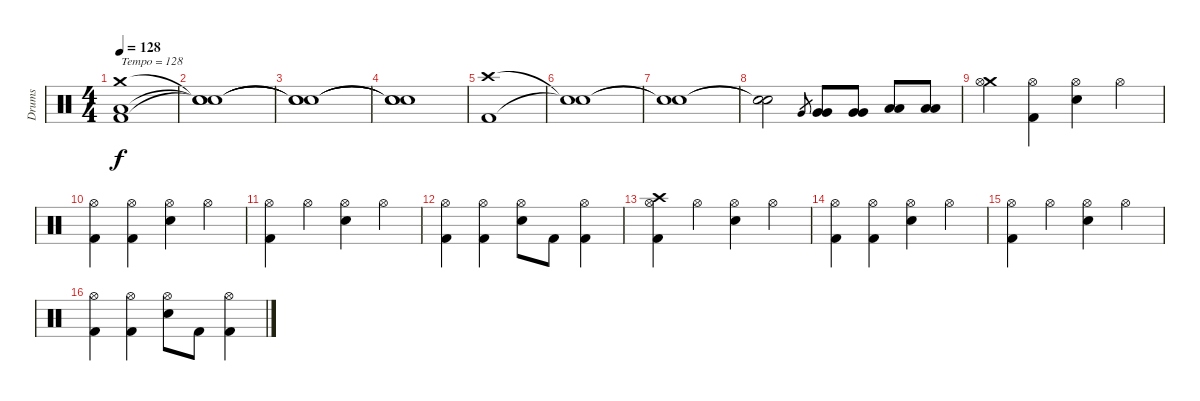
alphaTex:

\track ("Drums" "Drums") {instrument percussion}
\staff {score}
\articulation defaults
\ts (4 4)
\tempo 128
\clef neutral
\ks c
("Crash medium (hit)" "Low Floor Tom (hit)" "Kick (hit) 2").1{txt "Tempo = 128" dy f} |
("Snare (hit)"{t} "Snare (hit)"{t} "Snare (hit)"{t}).1 |
("Snare (hit)"{t} "Snare (hit)"{t} "Snare (hit)"{t}).1 |
("Snare (hit)"{t} "Snare (hit)"{t} "Snare (hit)"{t}).1 |
("Crash high (hit)" "Kick (hit) 2").1 |
("Snare (hit)"{t} "Snare (hit)"{t}).1 |
("Snare (hit)"{t} "Snare (hit)"{t}).1 |
("Snare (hit)"{t} "Snare (hit)"{t}).2 "Very Low Tom (hit)".8{gr} ("Very Low Tom (hit)" "Very Low Tom (hit)").8 ("Very Low Tom (hit)" "Very Low Tom (hit)").8 ("Low Floor Tom (hit)" "Low Floor Tom (hit)").8 ("Low Floor Tom (hit)" "Low Floor Tom (hit)").8 |
("Crash medium (hit)" "Hi-Hat (open)").4 ("Hi-Hat (open)" "Kick (hit) 2").4 ("Hi-Hat (open)" "Electric Snare (hit)").4 "Hi-Hat (open)".4 |
("Hi-Hat (open)" "Kick (hit) 2").4 ("Hi-Hat (open)" "Kick (hit) 2").4 ("Hi-Hat (open)" "Electric Snare (hit)").4 "Hi-Hat (open)".4 |
("Hi-Hat (open)" "Kick (hit) 2").4 "Hi-Hat (open)".4 ("Hi-Hat (open)" "Electric Snare (hit)").4 "Hi-Hat (open)".4 |
("Hi-Hat (open)" "Kick (hit) 2").4 ("Hi-Hat (open)" "Kick (hit) 2").4 ("Hi-Hat (open)" "Electric Snare (hit)").8 "Kick (hit) 2".8 ("Hi-Hat (open)" "Kick (hit) 2").4 |
("Crash high (hit)" "Hi-Hat (open)" "Kick (hit) 2").4 "Hi-Hat (open)".4 ("Hi-Hat (open)" "Electric Snare (hit)").4 "Hi-Hat (open)".4 |
("Hi-Hat (open)" "Kick (hit) 2").4 ("Hi-Hat (open)" "Kick (hit) 2").4 ("Hi-Hat (open)" "Electric Snare (hit)").4 "Hi-Hat (open)".4 |
("Hi-Hat (open)" "Kick (hit) 2").4 "Hi-Hat (open)".4 ("Hi-Hat (open)" "Electric Snare (hit)").4 "Hi-Hat (open)".4 |
("Hi-Hat (open)" "Kick (hit) 2").4 ("Hi-Hat (open)" "Kick (hit) 2").4 ("Hi-Hat (open)" "Electric Snare (hit)").8 "Kick (hit) 2".8 ("Hi-Hat (open)" "Kick (hit) 2").4
